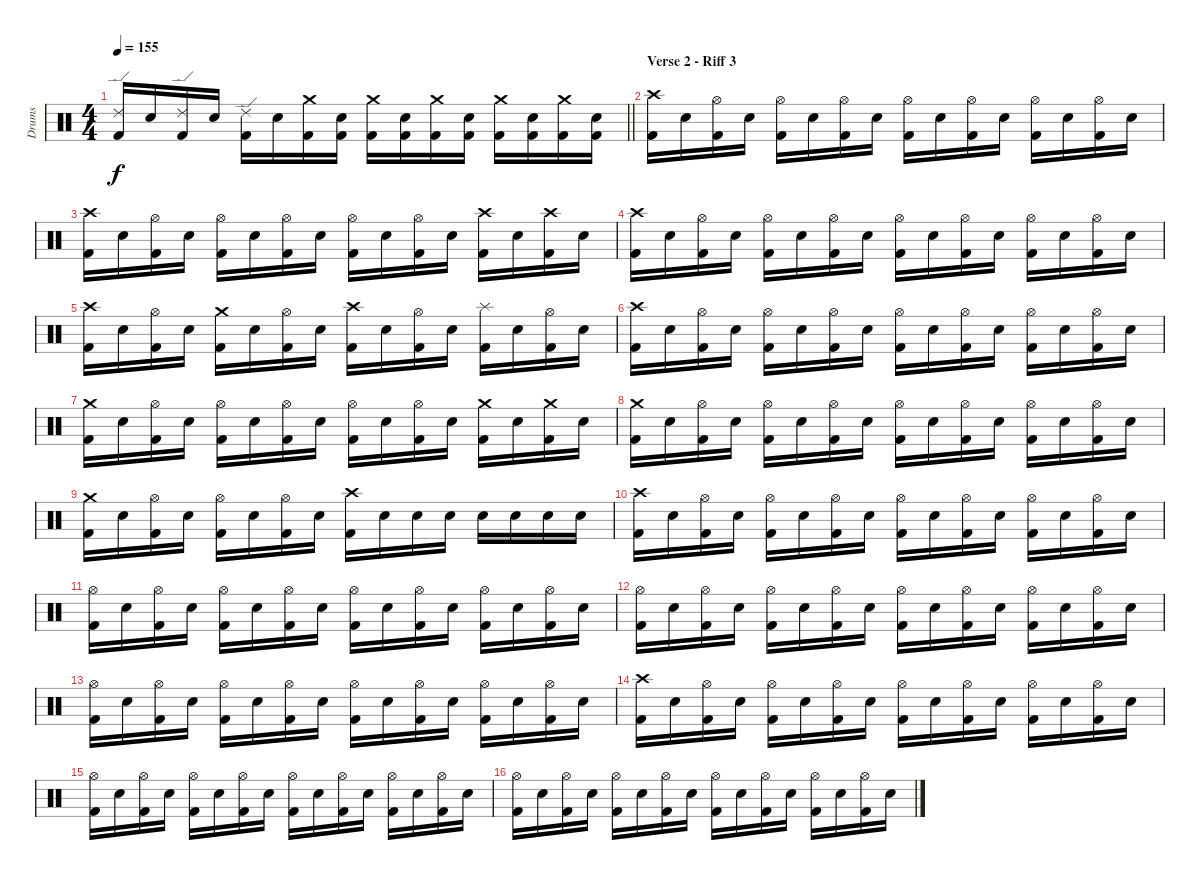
\track ("Drums" "Drums") {instrument percussion}
\staff {score}
\articulation defaults
\ts (4 4)
\tempo 155
\clef neutral
\barLineRight lightlight
\ks c
("Ride (edge) 2" "Kick (hit) 2").16{dy f} "Electric Snare (hit)".16 ("Ride (edge) 2" "Kick (hit) 2").16 "Electric Snare (hit)".16 ("Ride (edge) 2" "Kick (hit) 2").16 "Electric Snare (hit)".16 ("Crash medium (hit)" "Kick (hit) 2").16 ("Electric Snare (hit)" "Kick (hit) 2").16 ("Crash medium (hit)" "Kick (hit) 2").16 ("Electric Snare (hit)" "Kick (hit) 2").16 ("Crash medium (hit)" "Kick (hit) 2").16 ("Electric Snare (hit)" "Kick (hit) 2").16 ("Crash medium (hit)" "Kick (hit) 2").16 ("Electric Snare (hit)" "Kick (hit) 2").16 ("Crash medium (hit)" "Kick (hit) 2").16 ("Electric Snare (hit)" "Kick (hit) 2").16 |
\section ("" "Verse 2 - Riff 3")
("Crash high (hit)" "Kick (hit) 2").16 "Electric Snare (hit)".16 ("Hi-Hat (open)" "Kick (hit) 2").16 "Electric Snare (hit)".16 ("Hi-Hat (open)" "Kick (hit) 2").16 "Electric Snare (hit)".16 ("Hi-Hat (open)" "Kick (hit) 2").16 "Electric Snare (hit)".16 ("Hi-Hat (open)" "Kick (hit) 2").16 "Electric Snare (hit)".16 ("Hi-Hat (open)" "Kick (hit) 2").16 "Electric Snare (hit)".16 ("Hi-Hat (open)" "Kick (hit) 2").16 "Electric Snare (hit)".16 ("Hi-Hat (open)" "Kick (hit) 2").16 "Electric Snare (hit)".16 |
("Crash high (hit)" "Kick (hit) 2").16 "Electric Snare (hit)".16 ("Hi-Hat (open)" "Kick (hit) 2").16 "Electric Snare (hit)".16 ("Hi-Hat (open)" "Kick (hit) 2").16 "Electric Snare (hit)".16 ("Hi-Hat (open)" "Kick (hit) 2").16 "Electric Snare (hit)".16 ("Hi-Hat (open)" "Kick (hit) 2").16 "Electric Snare (hit)".16 ("Hi-Hat (open)" "Kick (hit) 2").16 "Electric Snare (hit)".16 ("Crash high (hit)" "Kick (hit) 2").16 "Electric Snare (hit)".16 ("Crash high (hit)" "Kick (hit) 2").16 "Electric Snare (hit)".16 |
("Crash high (hit)" "Kick (hit) 2").16 "Electric Snare (hit)".16 ("Hi-Hat (open)" "Kick (hit) 2").16 "Electric Snare (hit)".16 ("Hi-Hat (open)" "Kick (hit) 2").16 "Electric Snare (hit)".16 ("Hi-Hat (open)" "Kick (hit) 2").16 "Electric Snare (hit)".16 ("Hi-Hat (open)" "Kick (hit) 2").16 "Electric Snare (hit)".16 ("Hi-Hat (open)" "Kick (hit) 2").16 "Electric Snare (hit)".16 ("Hi-Hat (open)" "Kick (hit) 2").16 "Electric Snare (hit)".16 ("Hi-Hat (open)" "Kick (hit) 2").16 "Electric Snare (hit)".16 |
("Crash high (hit)" "Kick (hit) 2").16 "Electric Snare (hit)".16 ("Hi-Hat (open)" "Kick (hit) 2").16 "Electric Snare (hit)".16 ("Crash medium (hit)" "Kick (hit) 2").16 "Electric Snare (hit)".16 ("Hi-Hat (open)" "Kick (hit) 2").16 "Electric Snare (hit)".16 ("Crash high (hit)" "Kick (hit) 2").16 "Electric Snare (hit)".16 ("Hi-Hat (open)" "Kick (hit) 2").16 "Electric Snare (hit)".16 ("Splash (hit)" "Kick (hit) 2").16 "Electric Snare (hit)".16 ("Hi-Hat (open)" "Kick (hit) 2").16 "Electric Snare (hit)".16 |
("Crash high (hit)" "Kick (hit) 2").16 "Electric Snare (hit)".16 ("Hi-Hat (open)" "Kick (hit) 2").16 "Electric Snare (hit)".16 ("Hi-Hat (open)" "Kick (hit) 2").16 "Electric Snare (hit)".16 ("Hi-Hat (open)" "Kick (hit) 2").16 "Electric Snare (hit)".16 ("Hi-Hat (open)" "Kick (hit) 2").16 "Electric Snare (hit)".16 ("Hi-Hat (open)" "Kick (hit) 2").16 "Electric Snare (hit)".16 ("Hi-Hat (open)" "Kick (hit) 2").16 "Electric Snare (hit)".16 ("Hi-Hat (open)" "Kick (hit) 2").16 "Electric Snare (hit)".16 |
("Crash medium (hit)" "Kick (hit) 2").16 "Electric Snare (hit)".16 ("Hi-Hat (open)" "Kick (hit) 2").16 "Electric Snare (hit)".16 ("Hi-Hat (open)" "Kick (hit) 2").16 "Electric Snare (hit)".16 ("Hi-Hat (open)" "Kick (hit) 2").16 "Electric Snare (hit)".16 ("Hi-Hat (open)" "Kick (hit) 2").16 "Electric Snare (hit)".16 ("Hi-Hat (open)" "Kick (hit) 2").16 "Electric Snare (hit)".16 ("Crash medium (hit)" "Kick (hit) 2").16 "Electric Snare (hit)".16 ("Crash medium (hit)" "Kick (hit) 2").16 "Electric Snare (hit)".16 |
("Crash medium (hit)" "Kick (hit) 2").16 "Electric Snare (hit)".16 ("Hi-Hat (open)" "Kick (hit) 2").16 "Electric Snare (hit)".16 ("Hi-Hat (open)" "Kick (hit) 2").16 "Electric Snare (hit)".16 ("Hi-Hat (open)" "Kick (hit) 2").16 "Electric Snare (hit)".16 ("Hi-Hat (open)" "Kick (hit) 2").16 "Electric Snare (hit)".16 ("Hi-Hat (open)" "Kick (hit) 2").16 "Electric Snare (hit)".16 ("Hi-Hat (open)" "Kick (hit) 2").16 "Electric Snare (hit)".16 ("Hi-Hat (open)" "Kick (hit) 2").16 "Electric Snare (hit)".16 |
("Crash medium (hit)" "Kick (hit) 2").16 "Electric Snare (hit)".16 ("Hi-Hat (open)" "Kick (hit) 2").16 "Electric Snare (hit)".16 ("Hi-Hat (open)" "Kick (hit) 2").16 "Electric Snare (hit)".16 ("Hi-Hat (open)" "Kick (hit) 2").16 "Electric Snare (hit)".16 ("Crash high (hit)" "Kick (hit) 2").16 "Electric Snare (hit)".16 "Electric Snare (hit)".16 "Electric Snare (hit)".16 "Electric Snare (hit)".16 "Electric Snare (hit)".16 "Electric Snare (hit)".16 "Electric Snare (hit)".16 |
("Crash high (hit)" "Kick (hit) 2").16 "Electric Snare (hit)".16 ("Hi-Hat (open)" "Kick (hit) 2").16 "Electric Snare (hit)".16 ("Hi-Hat (open)" "Kick (hit) 2").16 "Electric Snare (hit)".16 ("Hi-Hat (open)" "Kick (hit) 2").16 "Electric Snare (hit)".16 ("Hi-Hat (open)" "Kick (hit) 2").16 "Electric Snare (hit)".16 ("Hi-Hat (open)" "Kick (hit) 2").16 "Electric Snare (hit)".16 ("Hi-Hat (open)" "Kick (hit) 2").16 "Electric Snare (hit)".16 ("Hi-Hat (open)" "Kick (hit) 2").16 "Electric Snare (hit)".16 |
("Hi-Hat (open)" "Kick (hit) 2").16 "Electric Snare (hit)".16 ("Hi-Hat (open)" "Kick (hit) 2").16 "Electric Snare (hit)".16 ("Hi-Hat (open)" "Kick (hit) 2").16 "Electric Snare (hit)".16 ("Hi-Hat (open)" "Kick (hit) 2").16 "Electric Snare (hit)".16 ("Hi-Hat (open)" "Kick (hit) 2").16 "Electric Snare (hit)".16 ("Hi-Hat (open)" "Kick (hit) 2").16 "Electric Snare (hit)".16 ("Hi-Hat (open)" "Kick (hit) 2").16 "Electric Snare (hit)".16 ("Hi-Hat (open)" "Kick (hit) 2").16 "Electric Snare (hit)".16 |
("Hi-Hat (open)" "Kick (hit) 2").16 "Electric Snare (hit)".16 ("Hi-Hat (open)" "Kick (hit) 2").16 "Electric Snare (hit)".16 ("Hi-Hat (open)" "Kick (hit) 2").16 "Electric Snare (hit)".16 ("Hi-Hat (open)" "Kick (hit) 2").16 "Electric Snare (hit)".16 ("Hi-Hat (open)" "Kick (hit) 2").16 "Electric Snare (hit)".16 ("Hi-Hat (open)" "Kick (hit) 2").16 "Electric Snare (hit)".16 ("Hi-Hat (open)" "Kick (hit) 2").16 "Electric Snare (hit)".16 ("Hi-Hat (open)" "Kick (hit) 2").16 "Electric Snare (hit)".16 |
("Hi-Hat (open)" "Kick (hit) 2").16 "Electric Snare (hit)".16 ("Hi-Hat (open)" "Kick (hit) 2").16 "Electric Snare (hit)".16 ("Hi-Hat (open)" "Kick (hit) 2").16 "Electric Snare (hit)".16 ("Hi-Hat (open)" "Kick (hit) 2").16 "Electric Snare (hit)".16 ("Hi-Hat (open)" "Kick (hit) 2").16 "Electric Snare (hit)".16 ("Hi-Hat (open)" "Kick (hit) 2").16 "Electric Snare (hit)".16 ("Hi-Hat (open)" "Kick (hit) 2").16 "Electric Snare (hit)".16 ("Hi-Hat (open)" "Kick (hit) 2").16 "Electric Snare (hit)".16 |
("Crash high (hit)" "Kick (hit) 2").16 "Electric Snare (hit)".16 ("Hi-Hat (open)" "Kick (hit) 2").16 "Electric Snare (hit)".16 ("Hi-Hat (open)" "Kick (hit) 2").16 "Electric Snare (hit)".16 ("Hi-Hat (open)" "Kick (hit) 2").16 "Electric Snare (hit)".16 ("Hi-Hat (open)" "Kick (hit) 2").16 "Electric Snare (hit)".16 ("Hi-Hat (open)" "Kick (hit) 2").16 "Electric Snare (hit)".16 ("Hi-Hat (open)" "Kick (hit) 2").16 "Electric Snare (hit)".16 ("Hi-Hat (open)" "Kick (hit) 2").16 "Electric Snare (hit)".16 |
("Hi-Hat (open)" "Kick (hit) 2").16 "Electric Snare (hit)".16 ("Hi-Hat (open)" "Kick (hit) 2").16 "Electric Snare (hit)".16 ("Hi-Hat (open)" "Kick (hit) 2").16 "Electric Snare (hit)".16 ("Hi-Hat (open)" "Kick (hit) 2").16 "Electric Snare (hit)".16 ("Hi-Hat (open)" "Kick (hit) 2").16 "Electric Snare (hit)".16 ("Hi-Hat (open)" "Kick (hit) 2").16 "Electric Snare (hit)".16 ("Hi-Hat (open)" "Kick (hit) 2").16 "Electric Snare (hit)".16 ("Hi-Hat (open)" "Kick (hit) 2").16 "Electric Snare (hit)".16 |
("Hi-Hat (open)" "Kick (hit) 2").16 "Electric Snare (hit)".16 ("Hi-Hat (open)" "Kick (hit) 2").16 "Electric Snare (hit)".16 ("Hi-Hat (open)" "Kick (hit) 2").16 "Electric Snare (hit)".16 ("Hi-Hat (open)" "Kick (hit) 2").16 "Electric Snare (hit)".16 ("Hi-Hat (open)" "Kick (hit) 2").16 "Electric Snare (hit)".16 ("Hi-Hat (open)" "Kick (hit) 2").16 "Electric Snare (hit)".16 ("Hi-Hat (open)" "Kick (hit) 2").16 "Electric Snare (hit)".16 ("Hi-Hat (open)" "Kick (hit) 2").16 "Electric Snare (hit)".16
